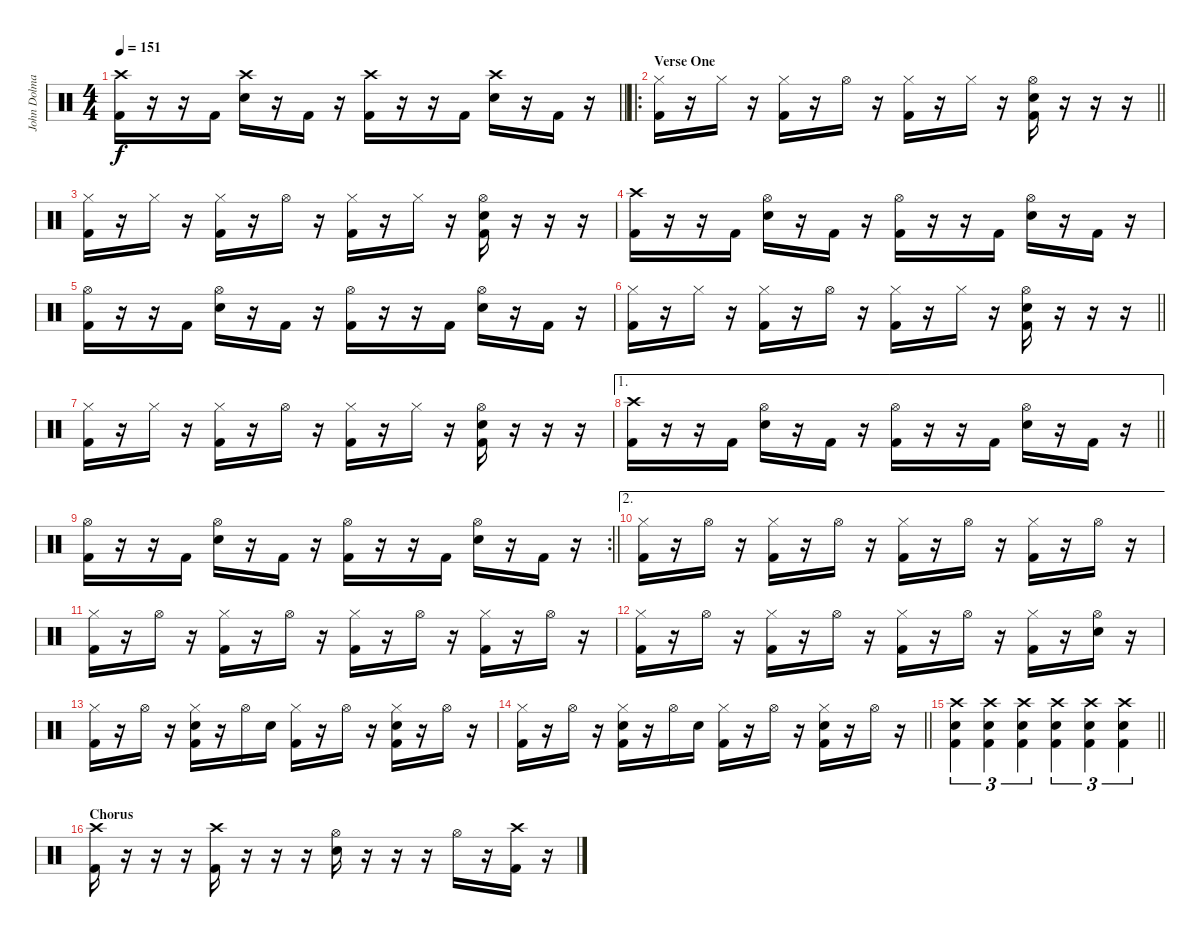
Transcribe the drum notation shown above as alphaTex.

\track ("John Dolmayan" "John Dolma") {instrument percussion}
\staff {score}
\articulation defaults
\ts (4 4)
\tempo 151
\clef neutral
\barLineRight lightlight
\ks c
("Crash high (hit)" "Kick (hit) 2").16{dy f} r.16 r.16 "Kick (hit) 2".16 ("Crash high (hit)" "Snare (hit) 2").16 r.16 "Kick (hit) 2".16 r.16 ("Crash high (hit)" "Kick (hit) 2").16 r.16 r.16 "Kick (hit) 2".16 ("Crash high (hit)" "Snare (hit) 2").16 r.16 "Kick (hit) 2".16 r.16 |
\ro
\section ("" "Verse One")
\barLineRight lightlight
("Hi-Hat (closed)" "Kick (hit) 2").16 r.16 "Hi-Hat (closed)".16 r.16 ("Hi-Hat (closed)" "Kick (hit) 2").16 r.16 "Hi-Hat (open)".16 r.16 ("Hi-Hat (closed)" "Kick (hit) 2").16 r.16 "Hi-Hat (closed)".16 r.16 ("Hi-Hat (open)" "Snare (hit) 2" "Kick (hit) 2").16 r.16 r.16 r.16 |
("Hi-Hat (closed)" "Kick (hit) 2").16 r.16 "Hi-Hat (closed)".16 r.16 ("Hi-Hat (closed)" "Kick (hit) 2").16 r.16 "Hi-Hat (open)".16 r.16 ("Hi-Hat (closed)" "Kick (hit) 2").16 r.16 "Hi-Hat (closed)".16 r.16 ("Hi-Hat (open)" "Snare (hit) 2" "Kick (hit) 2").16 r.16 r.16 r.16 |
("Crash high (hit)" "Kick (hit) 2").16 r.16 r.16 "Kick (hit) 2".16 ("Hi-Hat (open)" "Snare (hit) 2").16 r.16 "Kick (hit) 2".16 r.16 ("Hi-Hat (open)" "Kick (hit) 2").16 r.16 r.16 "Kick (hit) 2".16 ("Hi-Hat (open)" "Snare (hit) 2").16 r.16 "Kick (hit) 2".16 r.16 |
("Hi-Hat (open)" "Kick (hit) 2").16 r.16 r.16 "Kick (hit) 2".16 ("Hi-Hat (open)" "Snare (hit) 2").16 r.16 "Kick (hit) 2".16 r.16 ("Hi-Hat (open)" "Kick (hit) 2").16 r.16 r.16 "Kick (hit) 2".16 ("Hi-Hat (open)" "Snare (hit) 2").16 r.16 "Kick (hit) 2".16 r.16 |
\barLineRight lightlight
("Hi-Hat (closed)" "Kick (hit) 2").16 r.16 "Hi-Hat (closed)".16 r.16 ("Hi-Hat (closed)" "Kick (hit) 2").16 r.16 "Hi-Hat (open)".16 r.16 ("Hi-Hat (closed)" "Kick (hit) 2").16 r.16 "Hi-Hat (closed)".16 r.16 ("Hi-Hat (open)" "Snare (hit) 2" "Kick (hit) 2").16 r.16 r.16 r.16 |
("Hi-Hat (closed)" "Kick (hit) 2").16 r.16 "Hi-Hat (closed)".16 r.16 ("Hi-Hat (closed)" "Kick (hit) 2").16 r.16 "Hi-Hat (open)".16 r.16 ("Hi-Hat (closed)" "Kick (hit) 2").16 r.16 "Hi-Hat (closed)".16 r.16 ("Hi-Hat (open)" "Snare (hit) 2" "Kick (hit) 2").16 r.16 r.16 r.16 |
\ae 1
\barLineRight lightlight
("Crash high (hit)" "Kick (hit) 2").16 r.16 r.16 "Kick (hit) 2".16 ("Hi-Hat (open)" "Snare (hit) 2").16 r.16 "Kick (hit) 2".16 r.16 ("Hi-Hat (open)" "Kick (hit) 2").16 r.16 r.16 "Kick (hit) 2".16 ("Hi-Hat (open)" "Snare (hit) 2").16 r.16 "Kick (hit) 2".16 r.16 |
\rc 2
\barLineRight lightlight
("Hi-Hat (open)" "Kick (hit) 2").16 r.16 r.16 "Kick (hit) 2".16 ("Hi-Hat (open)" "Snare (hit) 2").16 r.16 "Kick (hit) 2".16 r.16 ("Hi-Hat (open)" "Kick (hit) 2").16 r.16 r.16 "Kick (hit) 2".16 ("Hi-Hat (open)" "Snare (hit) 2").16 r.16 "Kick (hit) 2".16 r.16 |
\ae 2
("Hi-Hat (closed)" "Kick (hit) 2").16 r.16 "Hi-Hat (open)".16 r.16 ("Hi-Hat (closed)" "Kick (hit) 2").16 r.16 "Hi-Hat (open)".16 r.16 ("Hi-Hat (closed)" "Kick (hit) 2").16 r.16 "Hi-Hat (open)".16 r.16 ("Hi-Hat (closed)" "Kick (hit) 2").16 r.16 "Hi-Hat (open)".16 r.16 |
("Hi-Hat (closed)" "Kick (hit) 2").16 r.16 "Hi-Hat (open)".16 r.16 ("Hi-Hat (closed)" "Kick (hit) 2").16 r.16 "Hi-Hat (open)".16 r.16 ("Hi-Hat (closed)" "Kick (hit) 2").16 r.16 "Hi-Hat (open)".16 r.16 ("Hi-Hat (closed)" "Kick (hit) 2").16 r.16 "Hi-Hat (open)".16 r.16 |
("Hi-Hat (closed)" "Kick (hit) 2").16 r.16 "Hi-Hat (open)".16 r.16 ("Hi-Hat (closed)" "Kick (hit) 2").16 r.16 "Hi-Hat (open)".16 r.16 ("Hi-Hat (closed)" "Kick (hit) 2").16 r.16 "Hi-Hat (open)".16 r.16 ("Hi-Hat (closed)" "Kick (hit) 2").16 r.16 ("Hi-Hat (open)" "Snare (hit) 2").16 r.16 |
("Hi-Hat (closed)" "Kick (hit) 2").16 r.16 "Hi-Hat (open)".16 r.16 ("Hi-Hat (closed)" "Snare (hit) 2" "Kick (hit) 2").16 r.16 "Hi-Hat (open)".16 "Snare (hit) 2".16 ("Hi-Hat (closed)" "Kick (hit) 2").16 r.16 "Hi-Hat (open)".16 r.16 ("Hi-Hat (closed)" "Snare (hit) 2" "Kick (hit) 2").16 r.16 "Hi-Hat (open)".16 r.16 |
\barLineRight lightlight
("Hi-Hat (closed)" "Kick (hit) 2").16 r.16 "Hi-Hat (open)".16 r.16 ("Hi-Hat (closed)" "Snare (hit) 2" "Kick (hit) 2").16 r.16 "Hi-Hat (open)".16 "Snare (hit) 2".16 ("Hi-Hat (closed)" "Kick (hit) 2").16 r.16 "Hi-Hat (open)".16 r.16 ("Hi-Hat (closed)" "Snare (hit) 2" "Kick (hit) 2").16 r.16 "Hi-Hat (open)".16 r.16 |
\barLineRight lightlight
("Crash high (hit)" "Snare (hit) 2" "Kick (hit) 2").4{tu (3 2)} ("Crash high (hit)" "Snare (hit) 2" "Kick (hit) 2").4{tu (3 2)} ("Crash high (hit)" "Snare (hit) 2" "Kick (hit) 2").4{tu (3 2)} ("Crash high (hit)" "Snare (hit) 2" "Kick (hit) 2").4{tu (3 2)} ("Crash high (hit)" "Snare (hit) 2" "Kick (hit) 2").4{tu (3 2)} ("Crash high (hit)" "Snare (hit) 2" "Kick (hit) 2").4{tu (3 2)} |
\section ("" "Chorus")
("Crash high (hit)" "Kick (hit) 2").16 r.16 r.16 r.16 ("Crash high (hit)" "Kick (hit) 2").16 r.16 r.16 r.16 ("Hi-Hat (open)" "Snare (hit) 2").16 r.16 r.16 r.16 "Hi-Hat (open)".16 r.16 ("Crash high (hit)" "Kick (hit) 2").16 r.16
